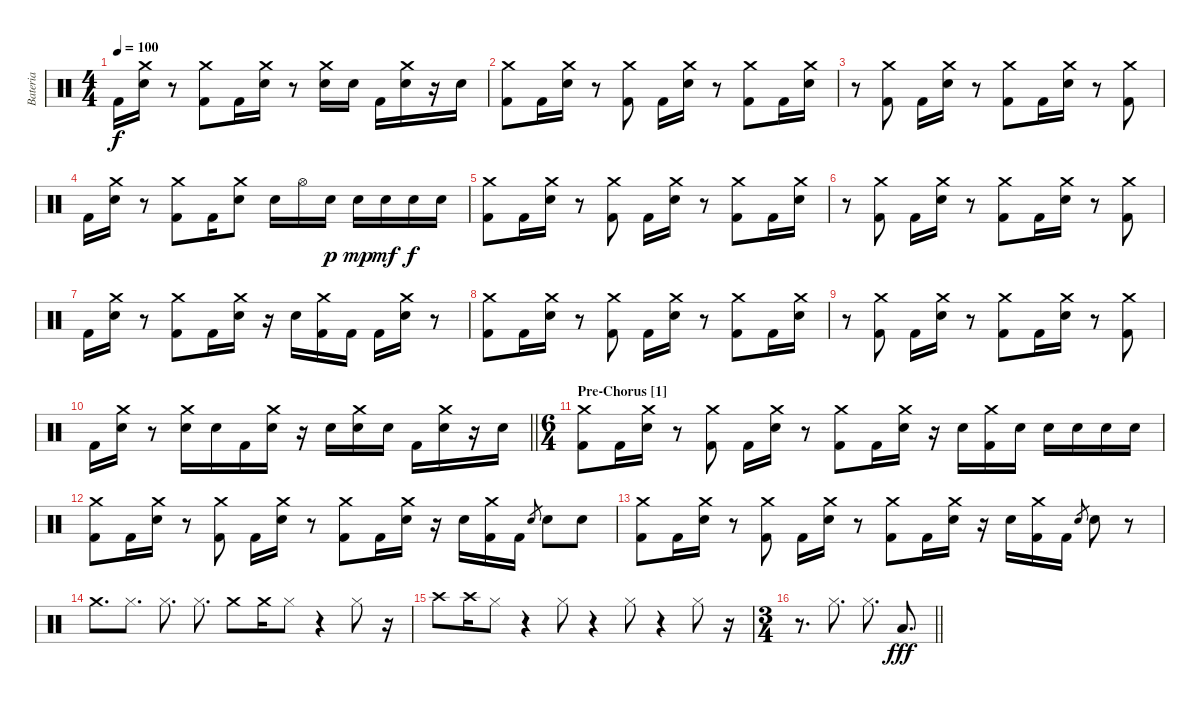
\track ("Bateria" "Bateria") {instrument percussion}
\staff {score}
\articulation defaults
\ts (4 4)
\tempo 100
\clef neutral
\ks c "Kick (hit) 2".16{dy f}
("Crash medium (hit)" "Electric Snare (hit)").16 r.8 ("Crash medium (hit)" "Kick (hit) 2").8 "Kick (hit) 2".16 ("Crash medium (hit)" "Electric Snare (hit)").16 r.8 ("Crash medium (hit)" "Electric Snare (hit)").16 "Electric Snare (hit)".16 "Kick (hit) 2".16 ("Crash medium (hit)" "Electric Snare (hit)").16 r.16 "Electric Snare (hit)".16 |
("Crash medium (hit)" "Kick (hit) 2").8 "Kick (hit) 2".16 ("Crash medium (hit)" "Electric Snare (hit)").16 r.8 ("Crash medium (hit)" "Kick (hit) 2").8 "Kick (hit) 2".16 ("Crash medium (hit)" "Electric Snare (hit)").16 r.8 ("Crash medium (hit)" "Kick (hit) 2").8 "Kick (hit) 2".16 ("Crash medium (hit)" "Electric Snare (hit)").16 |
r.8 ("Crash medium (hit)" "Kick (hit) 2").8 "Kick (hit) 2".16 ("Crash medium (hit)" "Electric Snare (hit)").16 r.8 ("Crash medium (hit)" "Kick (hit) 2").8 "Kick (hit) 2".16 ("Crash medium (hit)" "Electric Snare (hit)").16 r.8 ("Crash medium (hit)" "Kick (hit) 2").8 |
"Kick (hit) 2".16 ("Crash medium (hit)" "Electric Snare (hit)").16 r.8 ("Crash medium (hit)" "Kick (hit) 2").8 "Kick (hit) 2".16 ("Crash medium (hit)" "Electric Snare (hit)").8 "Electric Snare (hit)".16 "Hi-Hat (open)".16 "Electric Snare (hit)".16{dy p} "Electric Snare (hit)".16{dy mp} "Electric Snare (hit)".16{dy mf} "Electric Snare (hit)".16{dy f} "Electric Snare (hit)".16 |
("Crash medium (hit)" "Kick (hit) 2").8 "Kick (hit) 2".16 ("Crash medium (hit)" "Electric Snare (hit)").16 r.8 ("Crash medium (hit)" "Kick (hit) 2").8 "Kick (hit) 2".16 ("Crash medium (hit)" "Electric Snare (hit)").16 r.8 ("Crash medium (hit)" "Kick (hit) 2").8 "Kick (hit) 2".16 ("Crash medium (hit)" "Electric Snare (hit)").16 |
r.8 ("Crash medium (hit)" "Kick (hit) 2").8 "Kick (hit) 2".16 ("Crash medium (hit)" "Electric Snare (hit)").16 r.8 ("Crash medium (hit)" "Kick (hit) 2").8 "Kick (hit) 2".16 ("Crash medium (hit)" "Electric Snare (hit)").16 r.8 ("Crash medium (hit)" "Kick (hit) 2").8 |
"Kick (hit) 2".16 ("Crash medium (hit)" "Electric Snare (hit)").16 r.8 ("Crash medium (hit)" "Kick (hit) 2").8 "Kick (hit) 2".16 ("Crash medium (hit)" "Electric Snare (hit)").16 r.16 "Electric Snare (hit)".16 ("Crash medium (hit)" "Kick (hit) 2").16 "Kick (hit) 2".16 "Kick (hit) 2".16 ("Crash medium (hit)" "Electric Snare (hit)").16 r.8 |
("Crash medium (hit)" "Kick (hit) 2").8 "Kick (hit) 2".16 ("Crash medium (hit)" "Electric Snare (hit)").16 r.8 ("Crash medium (hit)" "Kick (hit) 2").8 "Kick (hit) 2".16 ("Crash medium (hit)" "Electric Snare (hit)").16 r.8 ("Crash medium (hit)" "Kick (hit) 2").8 "Kick (hit) 2".16 ("Crash medium (hit)" "Electric Snare (hit)").16 |
r.8 ("Crash medium (hit)" "Kick (hit) 2").8 "Kick (hit) 2".16 ("Crash medium (hit)" "Electric Snare (hit)").16 r.8 ("Crash medium (hit)" "Kick (hit) 2").8 "Kick (hit) 2".16 ("Crash medium (hit)" "Electric Snare (hit)").16 r.8 ("Crash medium (hit)" "Kick (hit) 2").8 |
\barLineRight lightlight "Kick (hit) 2".16
("Crash medium (hit)" "Electric Snare (hit)").16 r.8 ("Crash medium (hit)" "Electric Snare (hit)").16 "Electric Snare (hit)".16 "Kick (hit) 2".16 ("Crash medium (hit)" "Electric Snare (hit)").16 r.16 "Electric Snare (hit)".16 ("Crash medium (hit)" "Electric Snare (hit)").16 "Electric Snare (hit)".16 "Kick (hit) 2".16 ("Crash medium (hit)" "Electric Snare (hit)").16 r.16 "Electric Snare (hit)".16 |
\ts (6 4)
\section ("" "Pre-Chorus [1]")
("Crash medium (hit)" "Kick (hit) 2").8 "Kick (hit) 2".16 ("Crash medium (hit)" "Electric Snare (hit)").16 r.8 ("Crash medium (hit)" "Kick (hit) 2").8 "Kick (hit) 2".16 ("Crash medium (hit)" "Electric Snare (hit)").16 r.8 ("Crash medium (hit)" "Kick (hit) 2").8 "Kick (hit) 2".16 ("Crash medium (hit)" "Electric Snare (hit)").16 r.16 "Electric Snare (hit)".16 ("Crash medium (hit)" "Kick (hit) 2").16 "Electric Snare (hit)".16 "Electric Snare (hit)".16 "Electric Snare (hit)".16 "Electric Snare (hit)".16 "Electric Snare (hit)".16 |
("Crash medium (hit)" "Kick (hit) 2").8 "Kick (hit) 2".16 ("Crash medium (hit)" "Electric Snare (hit)").16 r.8 ("Crash medium (hit)" "Kick (hit) 2").8 "Kick (hit) 2".16 ("Crash medium (hit)" "Electric Snare (hit)").16 r.8 ("Crash medium (hit)" "Kick (hit) 2").8 "Kick (hit) 2".16 ("Crash medium (hit)" "Electric Snare (hit)").16 r.16 "Electric Snare (hit)".16 ("Crash medium (hit)" "Kick (hit) 2").16 "Kick (hit) 2".16 "Electric Snare (hit)".8{gr} "Electric Snare (hit)".8 "Electric Snare (hit)".8 |
("Crash medium (hit)" "Kick (hit) 2").8 "Kick (hit) 2".16 ("Crash medium (hit)" "Electric Snare (hit)").16 r.8 ("Crash medium (hit)" "Kick (hit) 2").8 "Kick (hit) 2".16 ("Crash medium (hit)" "Electric Snare (hit)").16 r.8 ("Crash medium (hit)" "Kick (hit) 2").8 "Kick (hit) 2".16 ("Crash medium (hit)" "Electric Snare (hit)").16 r.16 "Electric Snare (hit)".16 ("Crash medium (hit)" "Kick (hit) 2").16 "Kick (hit) 2".16 "Electric Snare (hit)".8{gr} "Electric Snare (hit)".8 r.8 |
"Crash medium (hit)".8{d} "Hi-Hat (closed)".8{d} "Hi-Hat (closed)".8{d} "Hi-Hat (closed)".8{d} "Crash medium (hit)".8 "Crash medium (hit)".16 "Hi-Hat (closed)".8 r.4 "Hi-Hat (closed)".8 r.16 |
"Crash high (hit)".8 "Crash high (hit)".16 "Hi-Hat (closed)".8 r.4 "Hi-Hat (closed)".8 r.4 "Hi-Hat (closed)".8 r.4 "Hi-Hat (closed)".8 r.16 |
\ts (3 4)
\barLineRight lightlight
r.8{d} "Hi-Hat (closed)".8{d} "Hi-Hat (closed)".8{d} "Low Tom (hit)".8{d dy fff}
